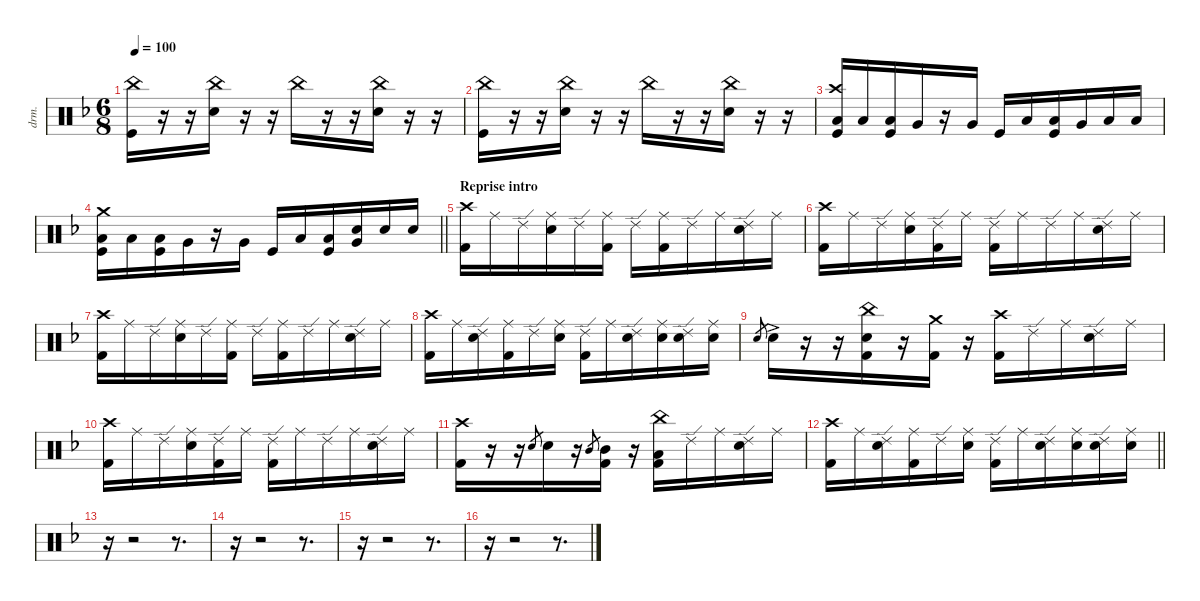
\defaultSystemsLayout 4
\hideDynamics
\bracketExtendMode nobrackets
\otherSystemsTrackNameOrientation horizontal
\track ("Percussions" "drm.") {instrument percussion}
\staff {score}
\articulation defaults
\ts (6 8)
\tempo 100
\clef neutral
\ks dminor
("China (hit)"{acc forcenatural} "Kick (hit)"{acc forcenatural}).16{dy f} r.16 r.16 ("China (hit)"{acc forcenatural} "Snare (hit) 2"{acc forcenatural}).16 r.16 r.16 "China (hit)"{acc forcenatural}.16 r.16 r.16 ("China (hit)"{acc forcenatural} "Snare (hit) 2"{acc forcenatural}).16 r.16 r.16 |
("China (hit)"{acc forcenatural} "Kick (hit)"{acc forcenatural}).16 r.16 r.16 ("China (hit)"{acc forcenatural} "Snare (hit) 2"{acc forcenatural}).16 r.16 r.16 "China (hit)"{acc forcenatural}.16 r.16 r.16 ("China (hit)"{acc forcenatural} "Snare (hit) 2"{acc forcenatural}).16 r.16 r.16 |
("Crash high (hit)"{acc forcenatural} "Low Floor Tom (hit)"{acc forcenatural} "Kick (hit)"{acc forcenatural}).16 "Low Floor Tom (hit)"{acc forcenatural}.16 ("Low Floor Tom (hit)"{acc forcenatural} "Kick (hit)"{acc forcenatural}).16 "Very Low Tom (hit)"{acc forcenatural}.16 r.16 "Very Low Tom (hit)"{acc forcenatural}.16 "Kick (hit)"{acc forcenatural}.16 "Low Floor Tom (hit)"{acc forcenatural}.16 ("Low Floor Tom (hit)"{acc forcenatural} "Kick (hit)"{acc forcenatural}).16 "Very Low Tom (hit)"{acc forcenatural}.16 "Low Floor Tom (hit)"{acc forcenatural}.16 "Low Floor Tom (hit)"{acc forcenatural}.16 |
\barLineRight lightlight
("Crash medium (hit)"{acc forcenatural} "Low Floor Tom (hit)"{acc forcenatural} "Kick (hit)"{acc forcenatural}).16 "Low Floor Tom (hit)"{acc forcenatural}.16 ("Low Floor Tom (hit)"{acc forcenatural} "Kick (hit)"{acc forcenatural}).16 "Very Low Tom (hit)"{acc forcenatural}.16 r.16 "Very Low Tom (hit)"{acc forcenatural}.16 "Kick (hit)"{acc forcenatural}.16 "Low Floor Tom (hit)"{acc forcenatural}.16 ("Low Floor Tom (hit)"{acc forcenatural} "Kick (hit)"{acc forcenatural}).16 ("Very Low Tom (hit)"{acc forcenatural} "Snare (hit) 2"{acc forcenatural}).16 "Snare (hit) 2"{acc forcenatural}.16 "Snare (hit) 2"{acc forcenatural}.16 |
\section ("" "Reprise intro")
("Crash high (hit)"{acc forcenatural} "Kick (hit) 2"{acc forcenatural}).16 "Ride (middle)"{acc forcenatural}.16 "Ride (edge) 2"{acc forcenatural}.16 ("Ride (middle)"{acc forcenatural} "Snare (hit) 2"{acc forcenatural}).16 "Ride (edge) 2"{acc forcenatural}.16 ("Ride (middle)"{acc forcenatural} "Kick (hit) 2"{acc forcenatural}).16 "Ride (edge) 2"{acc forcenatural}.16 ("Ride (middle)"{acc forcenatural} "Kick (hit) 2"{acc forcenatural}).16 "Ride (edge) 2"{acc forcenatural}.16 "Ride (middle)"{acc forcenatural}.16 ("Ride (edge) 2"{acc forcenatural} "Snare (hit) 2"{acc forcenatural}).16 "Ride (middle)"{acc forcenatural}.16 |
("Crash high (hit)"{acc forcenatural} "Kick (hit) 2"{acc forcenatural}).16 "Ride (middle)"{acc forcenatural}.16 "Ride (edge) 2"{acc forcenatural}.16 ("Ride (middle)"{acc forcenatural} "Snare (hit) 2"{acc forcenatural}).16 ("Ride (edge) 2"{acc forcenatural} "Kick (hit) 2"{acc forcenatural}).16 "Ride (middle)"{acc forcenatural}.16 ("Ride (edge) 2"{acc forcenatural} "Kick (hit) 2"{acc forcenatural}).16 "Ride (middle)"{acc forcenatural}.16 "Ride (edge) 2"{acc forcenatural}.16 "Ride (middle)"{acc forcenatural}.16 ("Ride (edge) 2"{acc forcenatural} "Snare (hit) 2"{acc forcenatural}).16 "Ride (middle)"{acc forcenatural}.16 |
("Crash high (hit)"{acc forcenatural} "Kick (hit) 2"{acc forcenatural}).16 "Ride (middle)"{acc forcenatural}.16 "Ride (edge) 2"{acc forcenatural}.16 ("Ride (middle)"{acc forcenatural} "Snare (hit) 2"{acc forcenatural}).16 "Ride (edge) 2"{acc forcenatural}.16 ("Ride (middle)"{acc forcenatural} "Kick (hit) 2"{acc forcenatural}).16 "Ride (edge) 2"{acc forcenatural}.16 ("Ride (middle)"{acc forcenatural} "Kick (hit) 2"{acc forcenatural}).16 "Ride (edge) 2"{acc forcenatural}.16 "Ride (middle)"{acc forcenatural}.16 ("Ride (edge) 2"{acc forcenatural} "Snare (hit) 2"{acc forcenatural}).16 "Ride (middle)"{acc forcenatural}.16 |
("Crash high (hit)"{acc forcenatural} "Kick (hit) 2"{acc forcenatural}).16 "Ride (middle)"{acc forcenatural}.16 ("Ride (edge) 2"{acc forcenatural} "Snare (hit) 2"{acc forcenatural}).16 ("Ride (middle)"{acc forcenatural} "Kick (hit) 2"{acc forcenatural}).16 "Ride (edge) 2"{acc forcenatural}.16 ("Ride (middle)"{acc forcenatural} "Snare (hit) 2"{acc forcenatural}).16 ("Ride (edge) 2"{acc forcenatural} "Kick (hit) 2"{acc forcenatural}).16 "Ride (middle)"{acc forcenatural}.16 ("Ride (edge) 2"{acc forcenatural} "Snare (hit) 2"{acc forcenatural}).16 ("Ride (middle)"{acc forcenatural} "Snare (hit) 2"{acc forcenatural}).16 ("Ride (edge) 2"{acc forcenatural} "Snare (hit) 2"{acc forcenatural}).16 ("Ride (middle)"{acc forcenatural} "Snare (hit) 2"{acc forcenatural}).16 |
"Electric Snare (hit)"{acc forcenatural}.8{gr dy mp} "Snare (hit) 2"{ac acc forcenatural}.16{dy ff} r.16 r.16 ("China (hit)"{acc forcenatural} "Kick (hit) 2"{acc forcenatural} "Snare (hit) 2"{acc forcenatural}).16{dy f} r.16 ("Kick (hit) 2"{acc forcenatural} "Crash medium (hit)"{acc forcenatural}).16 r.16 ("Crash high (hit)"{acc forcenatural} "Kick (hit) 2"{acc forcenatural}).16 "Ride (edge) 2"{acc forcenatural}.16 "Ride (middle)"{acc forcenatural}.16 ("Ride (edge) 2"{acc forcenatural} "Snare (hit) 2"{acc forcenatural}).16 "Ride (middle)"{acc forcenatural}.16 |
("Crash high (hit)"{acc forcenatural} "Kick (hit) 2"{acc forcenatural}).16 "Ride (middle)"{acc forcenatural}.16 "Ride (edge) 2"{acc forcenatural}.16 ("Ride (middle)"{acc forcenatural} "Snare (hit) 2"{acc forcenatural}).16 ("Ride (edge) 2"{acc forcenatural} "Kick (hit) 2"{acc forcenatural}).16 "Ride (middle)"{acc forcenatural}.16 ("Ride (edge) 2"{acc forcenatural} "Kick (hit) 2"{acc forcenatural}).16 "Ride (middle)"{acc forcenatural}.16 "Ride (edge) 2"{acc forcenatural}.16 "Ride (middle)"{acc forcenatural}.16 ("Ride (edge) 2"{acc forcenatural} "Snare (hit) 2"{acc forcenatural}).16 "Ride (middle)"{acc forcenatural}.16 |
("Crash high (hit)"{acc forcenatural} "Kick (hit) 2"{acc forcenatural}).16 r.16 r.16 "Electric Snare (hit)"{acc forcenatural}.8{gr dy mf} "Snare (hit) 2"{acc forcenatural}.16{dy f} r.16 "Mid Tom (hit)"{acc forcenatural}.8{gr dy mf} ("Mid Tom (hit)"{acc forcenatural} "Kick (hit) 2"{acc forcenatural}).16{dy f} r.16 ("China (hit)"{acc forcenatural} "Kick (hit) 2"{acc forcenatural} "Low Floor Tom (hit)"{acc forcenatural}).16 "Ride (edge) 2"{acc forcenatural}.16 "Ride (middle)"{acc forcenatural}.16 ("Ride (edge) 2"{acc forcenatural} "Snare (hit) 2"{acc forcenatural}).16 "Ride (middle)"{acc forcenatural}.16 |
\barLineRight lightlight
("Crash high (hit)"{acc forcenatural} "Kick (hit) 2"{acc forcenatural}).16 "Ride (middle)"{acc forcenatural}.16 ("Ride (edge) 2"{acc forcenatural} "Snare (hit) 2"{acc forcenatural}).16 ("Ride (middle)"{acc forcenatural} "Kick (hit) 2"{acc forcenatural}).16 "Ride (edge) 2"{acc forcenatural}.16 ("Ride (middle)"{acc forcenatural} "Snare (hit) 2"{acc forcenatural}).16 ("Ride (edge) 2"{acc forcenatural} "Kick (hit) 2"{acc forcenatural}).16 "Ride (middle)"{acc forcenatural}.16 ("Ride (edge) 2"{acc forcenatural} "Snare (hit) 2"{acc forcenatural}).16 ("Ride (middle)"{acc forcenatural} "Snare (hit) 2"{acc forcenatural}).16 ("Ride (edge) 2"{acc forcenatural} "Snare (hit) 2"{acc forcenatural}).16 ("Ride (middle)"{acc forcenatural} "Snare (hit) 2"{acc forcenatural}).16 |
r.16 r.2 r.8{d} |
r.16 r.2 r.8{d} |
r.16 r.2 r.8{d} |
r.16 r.2 r.8{d}
